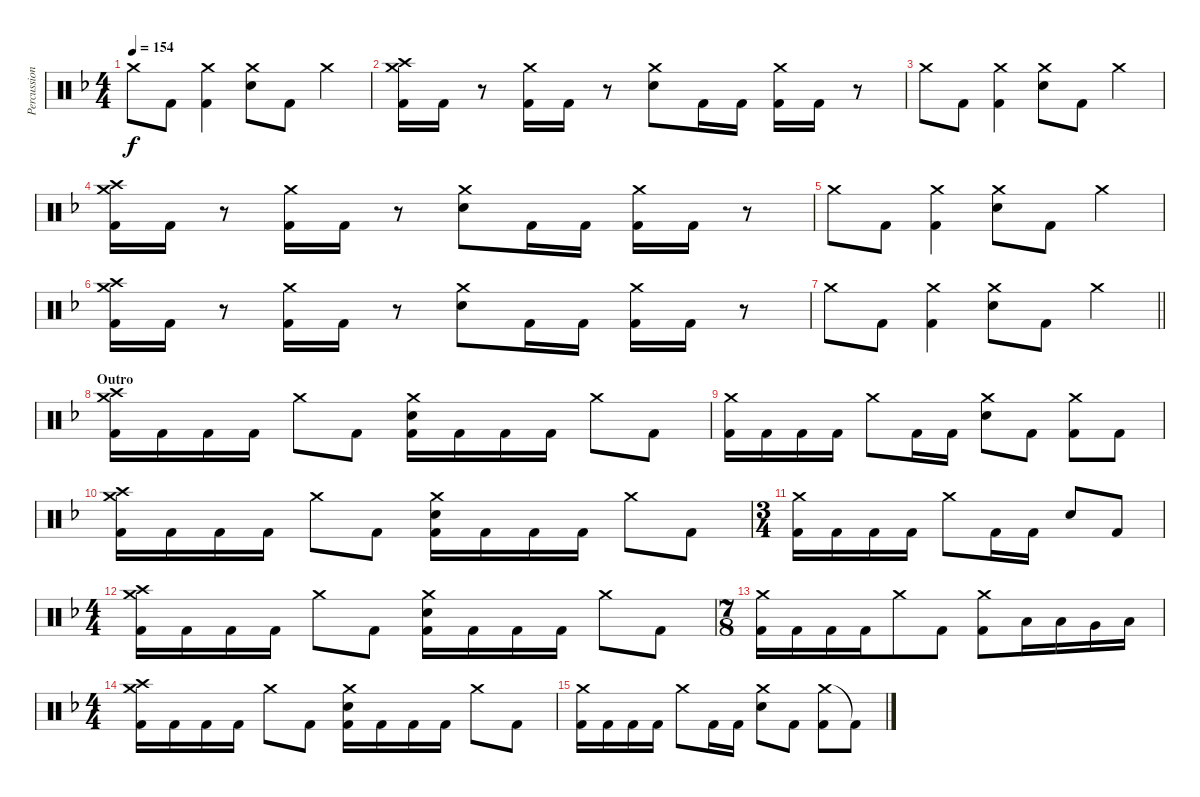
\track ("Percussion" "Percussion") {instrument percussion}
\staff {score}
\articulation defaults
\ts (4 4)
\tempo 154
\clef neutral
\ks dminor "Crash medium (hit)".8{dy f} "Kick (hit) 2".8
("Crash medium (hit)" "Kick (hit) 2").4 ("Crash medium (hit)" "Electric Snare (hit)").8 "Kick (hit) 2".8 "Crash medium (hit)".4 |
("Crash medium (hit)" "Crash high (hit)" "Kick (hit) 2").16 "Kick (hit) 2".16 r.8 ("Crash medium (hit)" "Kick (hit) 2").16 "Kick (hit) 2".16 r.8 ("Crash medium (hit)" "Electric Snare (hit)").8 "Kick (hit) 2".16 "Kick (hit) 2".16 ("Crash medium (hit)" "Kick (hit) 2").16 "Kick (hit) 2".16 r.8 |
"Crash medium (hit)".8 "Kick (hit) 2".8 ("Crash medium (hit)" "Kick (hit) 2").4 ("Crash medium (hit)" "Electric Snare (hit)").8 "Kick (hit) 2".8 "Crash medium (hit)".4 |
("Crash medium (hit)" "Crash high (hit)" "Kick (hit) 2").16 "Kick (hit) 2".16 r.8 ("Crash medium (hit)" "Kick (hit) 2").16 "Kick (hit) 2".16 r.8 ("Crash medium (hit)" "Electric Snare (hit)").8 "Kick (hit) 2".16 "Kick (hit) 2".16 ("Crash medium (hit)" "Kick (hit) 2").16 "Kick (hit) 2".16 r.8 |
"Crash medium (hit)".8 "Kick (hit) 2".8 ("Crash medium (hit)" "Kick (hit) 2").4 ("Crash medium (hit)" "Electric Snare (hit)").8 "Kick (hit) 2".8 "Crash medium (hit)".4 |
("Crash medium (hit)" "Crash high (hit)" "Kick (hit) 2").16 "Kick (hit) 2".16 r.8 ("Crash medium (hit)" "Kick (hit) 2").16 "Kick (hit) 2".16 r.8 ("Crash medium (hit)" "Electric Snare (hit)").8 "Kick (hit) 2".16 "Kick (hit) 2".16 ("Crash medium (hit)" "Kick (hit) 2").16 "Kick (hit) 2".16 r.8 |
\barLineRight lightlight "Crash medium (hit)".8 "Kick (hit) 2".8
("Crash medium (hit)" "Kick (hit) 2").4 ("Crash medium (hit)" "Electric Snare (hit)").8 "Kick (hit) 2".8 "Crash medium (hit)".4 |
\section ("" "Outro")
("Crash medium (hit)" "Crash high (hit)" "Kick (hit) 2").16 "Kick (hit) 2".16 "Kick (hit) 2".16 "Kick (hit) 2".16 "Crash medium (hit)".8 "Kick (hit) 2".8 ("Crash medium (hit)" "Electric Snare (hit)" "Kick (hit) 2").16 "Kick (hit) 2".16 "Kick (hit) 2".16 "Kick (hit) 2".16 "Crash medium (hit)".8 "Kick (hit) 2".8 |
("Crash medium (hit)" "Kick (hit) 2").16 "Kick (hit) 2".16 "Kick (hit) 2".16 "Kick (hit) 2".16 "Crash medium (hit)".8 "Kick (hit) 2".16 "Kick (hit) 2".16 ("Crash medium (hit)" "Electric Snare (hit)").8 "Kick (hit) 2".8 ("Crash medium (hit)" "Kick (hit) 2").8 "Kick (hit) 2".8 |
("Crash medium (hit)" "Crash high (hit)" "Kick (hit) 2").16 "Kick (hit) 2".16 "Kick (hit) 2".16 "Kick (hit) 2".16 "Crash medium (hit)".8 "Kick (hit) 2".8 ("Crash medium (hit)" "Electric Snare (hit)" "Kick (hit) 2").16 "Kick (hit) 2".16 "Kick (hit) 2".16 "Kick (hit) 2".16 "Crash medium (hit)".8 "Kick (hit) 2".8 |
\ts (3 4)
("Crash medium (hit)" "Kick (hit) 2").16 "Kick (hit) 2".16 "Kick (hit) 2".16 "Kick (hit) 2".16 "Crash medium (hit)".8 "Kick (hit) 2".16 "Kick (hit) 2".16 "Electric Snare (hit)".8 "Kick (hit) 2".8 |
\ts (4 4)
("Crash medium (hit)" "Crash high (hit)" "Kick (hit) 2").16 "Kick (hit) 2".16 "Kick (hit) 2".16 "Kick (hit) 2".16 "Crash medium (hit)".8 "Kick (hit) 2".8 ("Crash medium (hit)" "Electric Snare (hit)" "Kick (hit) 2").16 "Kick (hit) 2".16 "Kick (hit) 2".16 "Kick (hit) 2".16 "Crash medium (hit)".8 "Kick (hit) 2".8 |
\ts (7 8)
("Crash medium (hit)" "Kick (hit) 2").16 "Kick (hit) 2".16 "Kick (hit) 2".16 "Kick (hit) 2".16 "Crash medium (hit)".8 "Kick (hit) 2".8 ("Crash medium (hit)" "Kick (hit) 2").8 "Low Tom (hit)".16 "Low Tom (hit)".16 "Very Low Tom (hit)".16 "Low Floor Tom (hit)".16 |
\ts (4 4)
("Crash medium (hit)" "Crash high (hit)" "Kick (hit) 2").16 "Kick (hit) 2".16 "Kick (hit) 2".16 "Kick (hit) 2".16 "Crash medium (hit)".8 "Kick (hit) 2".8 ("Crash medium (hit)" "Electric Snare (hit)" "Kick (hit) 2").16 "Kick (hit) 2".16 "Kick (hit) 2".16 "Kick (hit) 2".16 "Crash medium (hit)".8 "Kick (hit) 2".8 |
("Crash medium (hit)" "Kick (hit) 2").16 "Kick (hit) 2".16 "Kick (hit) 2".16 "Kick (hit) 2".16 "Crash medium (hit)".8 "Kick (hit) 2".16 "Kick (hit) 2".16 ("Crash medium (hit)" "Electric Snare (hit)").8 "Kick (hit) 2".8 ("Crash medium (hit)" "Kick (hit) 2").8 "Kick (hit) 2"{t}.8{volume 0}
